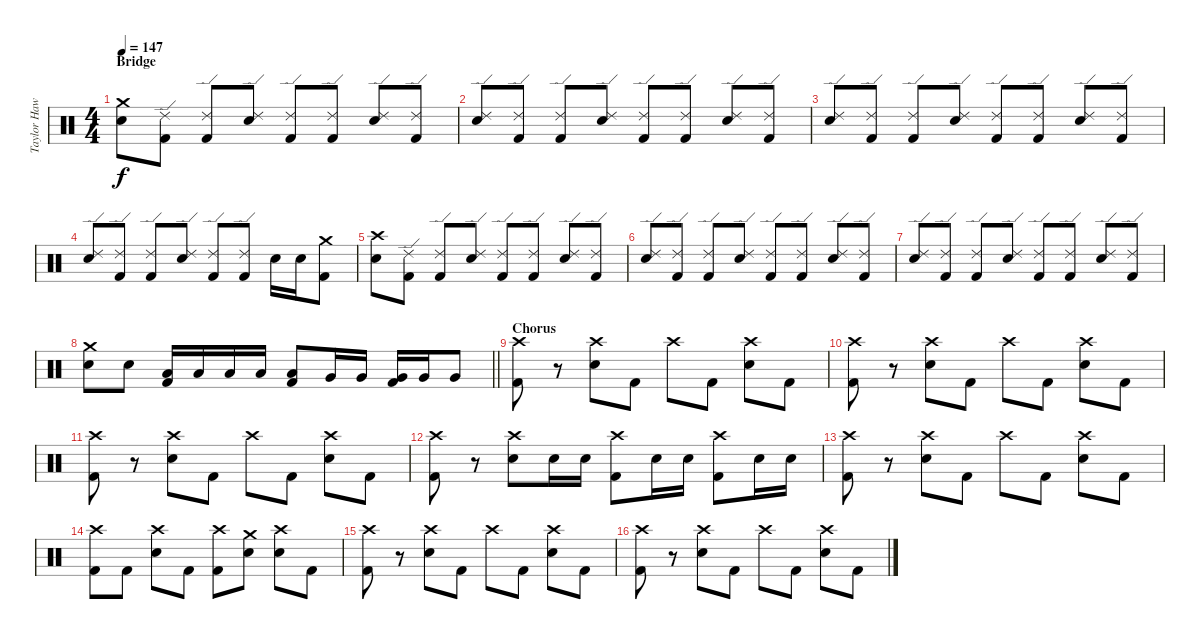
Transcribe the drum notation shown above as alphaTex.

\track ("Taylor Hawkins - Drums" "Taylor Haw") {instrument percussion}
\staff {score}
\articulation defaults
\ts (4 4)
\section ("" "Bridge")
\tempo 147
\clef neutral
\ks c
("Crash medium (hit)" "Snare (hit) 2").8{dy f} ("Ride (edge) 2" "Kick (hit) 2").8 ("Ride (edge) 2" "Kick (hit) 2").8 ("Ride (edge) 2" "Snare (hit) 2").8 ("Ride (edge) 2" "Kick (hit) 2").8 ("Ride (edge) 2" "Kick (hit) 2").8 ("Ride (edge) 2" "Snare (hit) 2").8 ("Ride (edge) 2" "Kick (hit) 2").8 |
("Ride (edge) 2" "Snare (hit) 2").8 ("Ride (edge) 2" "Kick (hit) 2").8 ("Ride (edge) 2" "Kick (hit) 2").8 ("Ride (edge) 2" "Snare (hit) 2").8 ("Ride (edge) 2" "Kick (hit) 2").8 ("Ride (edge) 2" "Kick (hit) 2").8 ("Ride (edge) 2" "Snare (hit) 2").8 ("Ride (edge) 2" "Kick (hit) 2").8 |
("Ride (edge) 2" "Snare (hit) 2").8 ("Ride (edge) 2" "Kick (hit) 2").8 ("Ride (edge) 2" "Kick (hit) 2").8 ("Ride (edge) 2" "Snare (hit) 2").8 ("Ride (edge) 2" "Kick (hit) 2").8 ("Ride (edge) 2" "Kick (hit) 2").8 ("Ride (edge) 2" "Snare (hit) 2").8 ("Ride (edge) 2" "Kick (hit) 2").8 |
("Ride (edge) 2" "Snare (hit) 2").8 ("Ride (edge) 2" "Kick (hit) 2").8 ("Ride (edge) 2" "Kick (hit) 2").8 ("Ride (edge) 2" "Snare (hit) 2").8 ("Ride (edge) 2" "Kick (hit) 2").8 ("Ride (edge) 2" "Kick (hit) 2").8 "Snare (hit) 2".16 "Snare (hit) 2".16 ("Crash medium (hit)" "Kick (hit) 2").8 |
("Crash high (hit)" "Snare (hit) 2").8 ("Ride (edge) 2" "Kick (hit) 2").8 ("Ride (edge) 2" "Kick (hit) 2").8 ("Ride (edge) 2" "Snare (hit) 2").8 ("Ride (edge) 2" "Kick (hit) 2").8 ("Ride (edge) 2" "Kick (hit) 2").8 ("Ride (edge) 2" "Snare (hit) 2").8 ("Ride (edge) 2" "Kick (hit) 2").8 |
("Ride (edge) 2" "Snare (hit) 2").8 ("Ride (edge) 2" "Kick (hit) 2").8 ("Ride (edge) 2" "Kick (hit) 2").8 ("Ride (edge) 2" "Snare (hit) 2").8 ("Ride (edge) 2" "Kick (hit) 2").8 ("Ride (edge) 2" "Kick (hit) 2").8 ("Ride (edge) 2" "Snare (hit) 2").8 ("Ride (edge) 2" "Kick (hit) 2").8 |
("Ride (edge) 2" "Snare (hit) 2").8 ("Ride (edge) 2" "Kick (hit) 2").8 ("Ride (edge) 2" "Kick (hit) 2").8 ("Ride (edge) 2" "Snare (hit) 2").8 ("Ride (edge) 2" "Kick (hit) 2").8 ("Ride (edge) 2" "Kick (hit) 2").8 ("Ride (edge) 2" "Snare (hit) 2").8 ("Ride (edge) 2" "Kick (hit) 2").8 |
\barLineRight lightlight
("Crash medium (hit)" "Snare (hit) 2").8 "Snare (hit)".8 ("Low Tom (hit)" "Kick (hit) 2").16 "Low Tom (hit)".16 "Low Tom (hit)".16 "Low Tom (hit)".16 ("Low Tom (hit)" "Kick (hit) 2").8 "Very Low Tom (hit)".16 "Very Low Tom (hit)".16 ("Very Low Tom (hit)" "Kick (hit) 2").16 "Very Low Tom (hit)".16 "Very Low Tom (hit)".8 |
\section ("" "Chorus")
("Crash high (hit)" "Kick (hit) 2").8 r.8 ("Crash high (hit)" "Snare (hit) 2").8 "Kick (hit) 2".8 "Crash high (hit)".8 "Kick (hit) 2".8 ("Crash high (hit)" "Snare (hit) 2").8 "Kick (hit) 2".8 |
("Crash high (hit)" "Kick (hit) 2").8 r.8 ("Crash high (hit)" "Snare (hit) 2").8 "Kick (hit) 2".8 "Crash high (hit)".8 "Kick (hit) 2".8 ("Crash high (hit)" "Snare (hit) 2").8 "Kick (hit) 2".8 |
("Crash high (hit)" "Kick (hit) 2").8 r.8 ("Crash high (hit)" "Snare (hit) 2").8 "Kick (hit) 2".8 "Crash high (hit)".8 "Kick (hit) 2".8 ("Crash high (hit)" "Snare (hit) 2").8 "Kick (hit) 2".8 |
("Crash high (hit)" "Kick (hit) 2").8 r.8 ("Crash high (hit)" "Snare (hit) 2").8 "Snare (hit) 2".16 "Snare (hit) 2".16 ("Crash high (hit)" "Kick (hit) 2").8 "Snare (hit) 2".16 "Snare (hit) 2".16 ("Crash high (hit)" "Kick (hit) 2").8 "Snare (hit) 2".16 "Snare (hit) 2".16 |
("Crash high (hit)" "Kick (hit) 2").8 r.8 ("Crash high (hit)" "Snare (hit) 2").8 "Kick (hit) 2".8 "Crash high (hit)".8 "Kick (hit) 2".8 ("Crash high (hit)" "Snare (hit) 2").8 "Kick (hit) 2".8 |
("Crash high (hit)" "Kick (hit) 2").8 "Kick (hit) 2".8 ("Crash high (hit)" "Snare (hit) 2").8 "Kick (hit) 2".8 ("Crash high (hit)" "Kick (hit) 2").8 ("Crash medium (hit)" "Snare (hit) 2").8 ("Crash high (hit)" "Snare (hit) 2").8 "Kick (hit) 2".8 |
("Crash high (hit)" "Kick (hit) 2").8 r.8 ("Crash high (hit)" "Snare (hit) 2").8 "Kick (hit) 2".8 "Crash high (hit)".8 "Kick (hit) 2".8 ("Crash high (hit)" "Snare (hit) 2").8 "Kick (hit) 2".8 |
("Crash high (hit)" "Kick (hit) 2").8 r.8 ("Crash high (hit)" "Snare (hit) 2").8 "Kick (hit) 2".8 "Crash high (hit)".8 "Kick (hit) 2".8 ("Crash high (hit)" "Snare (hit) 2").8 "Kick (hit) 2".8
